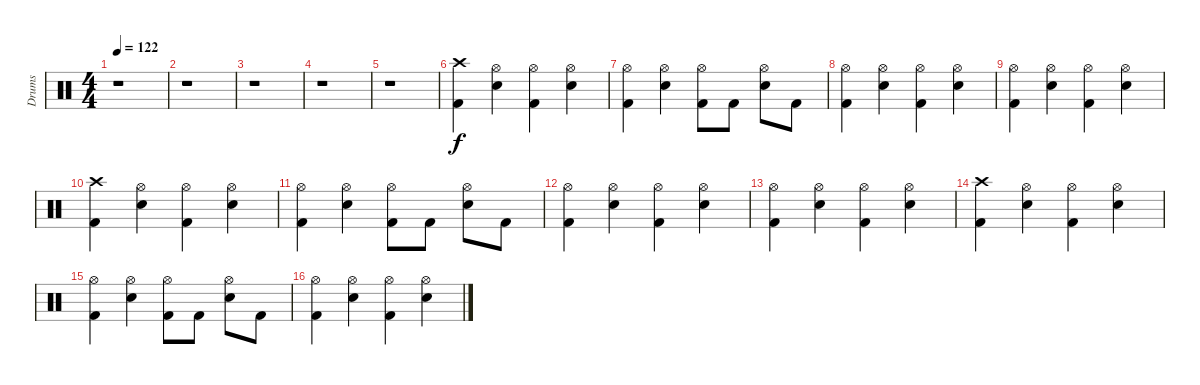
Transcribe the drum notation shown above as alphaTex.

\track ("Drums" "Drums") {instrument percussion}
\staff {score}
\articulation defaults
\ts (4 4)
\tempo 122
\clef neutral
\ks c
r.1{dy f} |
r.1 |
r.1 |
r.1 |
r.1 |
("Crash high (hit)" "Kick (hit) 2").4 ("Electric Snare (hit)" "Hi-Hat (open)").4 ("Kick (hit) 2" "Hi-Hat (open)").4 ("Electric Snare (hit)" "Hi-Hat (open)").4 |
("Kick (hit) 2" "Hi-Hat (open)").4 ("Electric Snare (hit)" "Hi-Hat (open)").4 ("Kick (hit) 2" "Hi-Hat (open)").8 "Kick (hit) 2".8 ("Electric Snare (hit)" "Hi-Hat (open)").8 "Kick (hit) 2".8 |
("Hi-Hat (open)" "Kick (hit) 2").4 ("Electric Snare (hit)" "Hi-Hat (open)").4 ("Kick (hit) 2" "Hi-Hat (open)").4 ("Electric Snare (hit)" "Hi-Hat (open)").4 |
("Kick (hit) 2" "Hi-Hat (open)").4 ("Electric Snare (hit)" "Hi-Hat (open)").4 ("Kick (hit) 2" "Hi-Hat (open)").4 ("Electric Snare (hit)" "Hi-Hat (open)").4 |
("Crash high (hit)" "Kick (hit) 2").4 ("Electric Snare (hit)" "Hi-Hat (open)").4 ("Kick (hit) 2" "Hi-Hat (open)").4 ("Electric Snare (hit)" "Hi-Hat (open)").4 |
("Kick (hit) 2" "Hi-Hat (open)").4 ("Electric Snare (hit)" "Hi-Hat (open)").4 ("Kick (hit) 2" "Hi-Hat (open)").8 "Kick (hit) 2".8 ("Electric Snare (hit)" "Hi-Hat (open)").8 "Kick (hit) 2".8 |
("Hi-Hat (open)" "Kick (hit) 2").4 ("Electric Snare (hit)" "Hi-Hat (open)").4 ("Kick (hit) 2" "Hi-Hat (open)").4 ("Electric Snare (hit)" "Hi-Hat (open)").4 |
("Kick (hit) 2" "Hi-Hat (open)").4 ("Electric Snare (hit)" "Hi-Hat (open)").4 ("Kick (hit) 2" "Hi-Hat (open)").4 ("Electric Snare (hit)" "Hi-Hat (open)").4 |
("Crash high (hit)" "Kick (hit) 2").4 ("Electric Snare (hit)" "Hi-Hat (open)").4 ("Kick (hit) 2" "Hi-Hat (open)").4 ("Electric Snare (hit)" "Hi-Hat (open)").4 |
("Kick (hit) 2" "Hi-Hat (open)").4 ("Electric Snare (hit)" "Hi-Hat (open)").4 ("Kick (hit) 2" "Hi-Hat (open)").8 "Kick (hit) 2".8 ("Electric Snare (hit)" "Hi-Hat (open)").8 "Kick (hit) 2".8 |
("Hi-Hat (open)" "Kick (hit) 2").4 ("Electric Snare (hit)" "Hi-Hat (open)").4 ("Kick (hit) 2" "Hi-Hat (open)").4 ("Electric Snare (hit)" "Hi-Hat (open)").4
